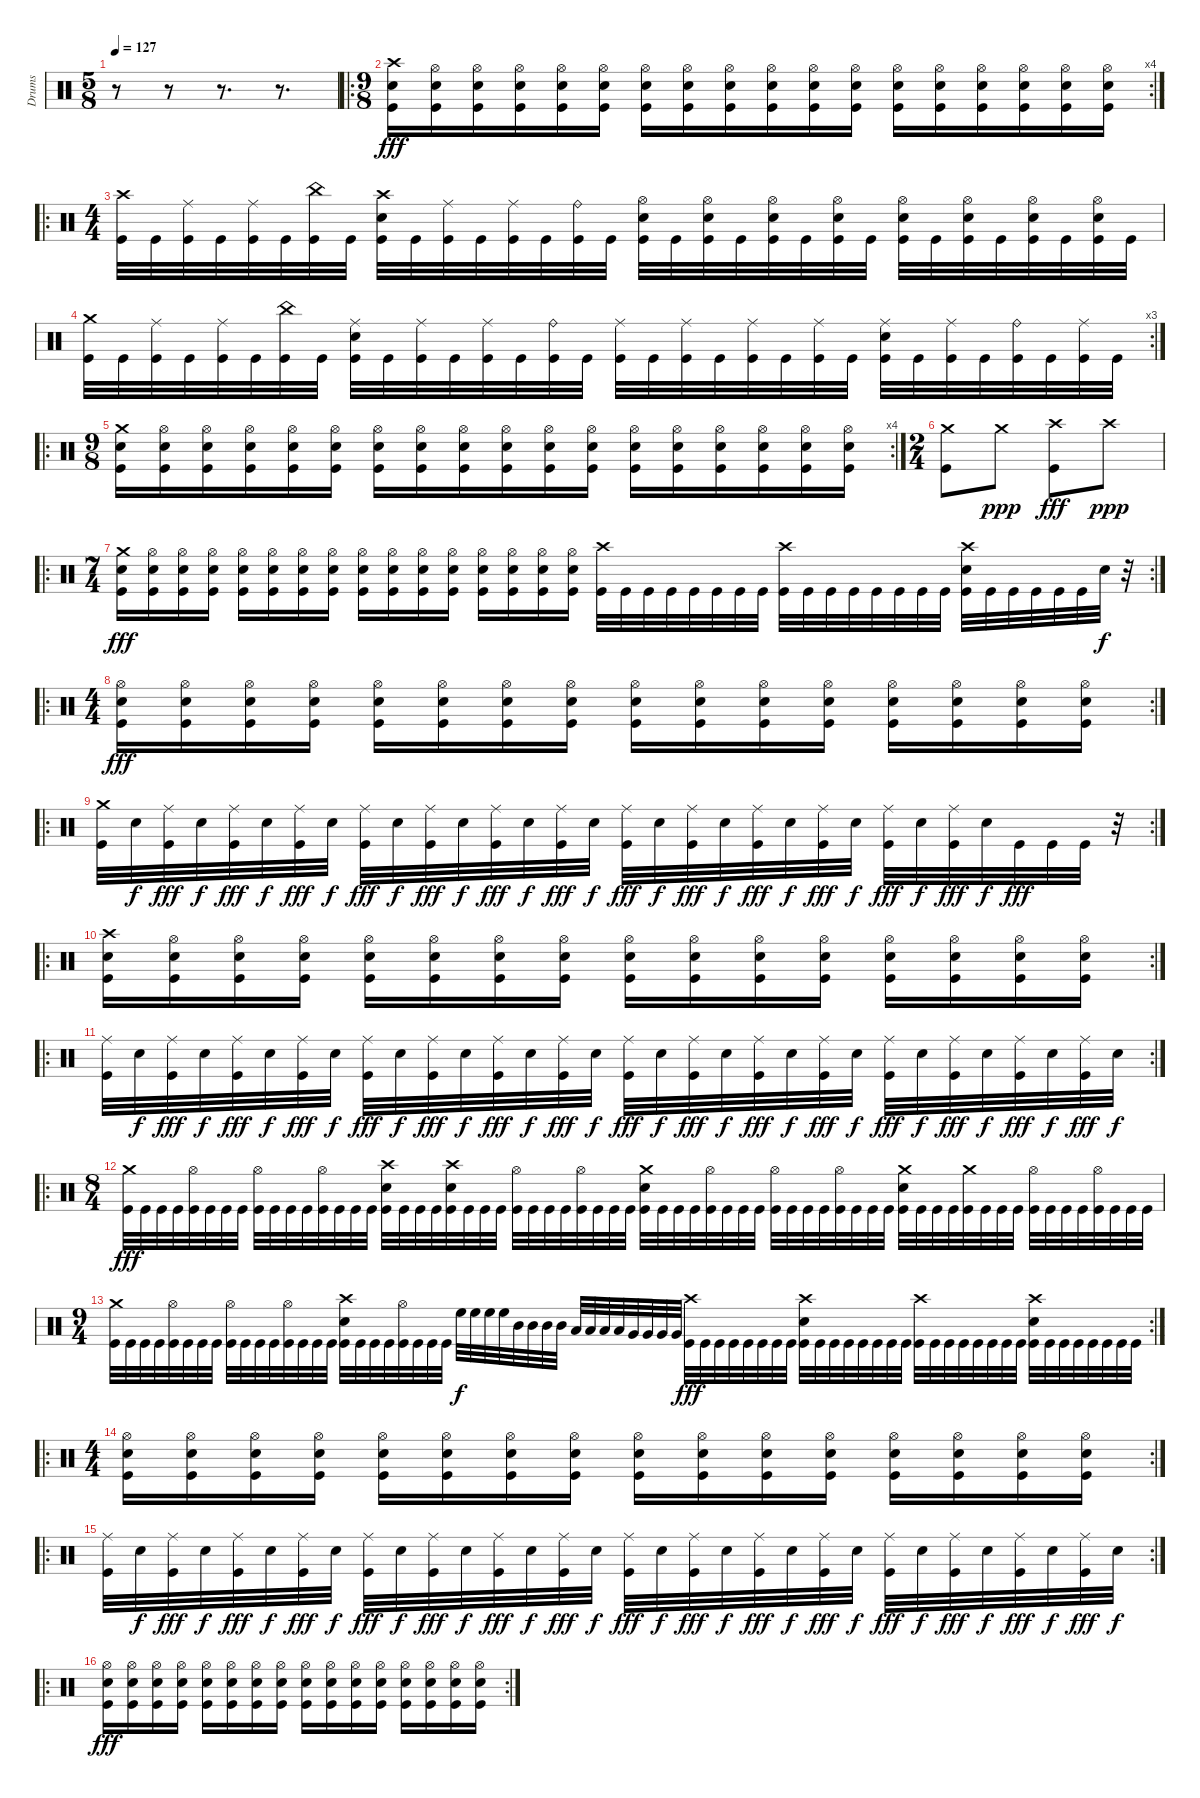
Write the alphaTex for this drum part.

\track ("Drums" "Drums") {instrument percussion}
\staff {score}
\articulation defaults
\ts (5 8)
\tempo 127
\clef neutral
\ks c
r.8{dy f} r.8 r.8{d} r.8{d} |
\ro
\rc 4
\ts (9 8)
("Crash high (hit)" "Electric Snare (hit)" "Kick (hit)").16{dy fff} ("Hi-Hat (open)" "Electric Snare (hit)" "Kick (hit)").16 ("Hi-Hat (open)" "Electric Snare (hit)" "Kick (hit)").16 ("Hi-Hat (open)" "Electric Snare (hit)" "Kick (hit)").16 ("Hi-Hat (open)" "Electric Snare (hit)" "Kick (hit)").16 ("Hi-Hat (open)" "Electric Snare (hit)" "Kick (hit)").16 ("Hi-Hat (open)" "Electric Snare (hit)" "Kick (hit)").16 ("Hi-Hat (open)" "Electric Snare (hit)" "Kick (hit)").16 ("Hi-Hat (open)" "Electric Snare (hit)" "Kick (hit)").16 ("Hi-Hat (open)" "Electric Snare (hit)" "Kick (hit)").16 ("Hi-Hat (open)" "Electric Snare (hit)" "Kick (hit)").16 ("Hi-Hat (open)" "Electric Snare (hit)" "Kick (hit)").16 ("Hi-Hat (open)" "Electric Snare (hit)" "Kick (hit)").16 ("Hi-Hat (open)" "Electric Snare (hit)" "Kick (hit)").16 ("Hi-Hat (open)" "Electric Snare (hit)" "Kick (hit)").16 ("Hi-Hat (open)" "Electric Snare (hit)" "Kick (hit)").16 ("Hi-Hat (open)" "Electric Snare (hit)" "Kick (hit)").16 ("Hi-Hat (open)" "Electric Snare (hit)" "Kick (hit)").16 |
\ro
\ts (4 4)
("Crash high (hit)" "Kick (hit)").32 "Kick (hit)".32 ("Ride (middle)" "Kick (hit)").32 "Kick (hit)".32 ("Ride (middle)" "Kick (hit)").32 "Kick (hit)".32 ("China (hit)" "Kick (hit)").32 "Kick (hit)".32 ("Crash high (hit)" "Electric Snare (hit)" "Kick (hit)").32 "Kick (hit)".32 ("Ride (middle)" "Kick (hit)").32 "Kick (hit)".32 ("Ride (middle)" "Kick (hit)").32 "Kick (hit)".32 ("Ride (bell)" "Kick (hit)").32 "Kick (hit)".32 ("Hi-Hat (open)" "Electric Snare (hit)" "Kick (hit)").32 "Kick (hit)".32 ("Hi-Hat (open)" "Electric Snare (hit)" "Kick (hit)").32 "Kick (hit)".32 ("Hi-Hat (open)" "Electric Snare (hit)" "Kick (hit)").32 "Kick (hit)".32 ("Hi-Hat (open)" "Electric Snare (hit)" "Kick (hit)").32 "Kick (hit)".32 ("Hi-Hat (open)" "Electric Snare (hit)" "Kick (hit)").32 "Kick (hit)".32 ("Hi-Hat (open)" "Electric Snare (hit)" "Kick (hit)").32 "Kick (hit)".32 ("Hi-Hat (open)" "Electric Snare (hit)" "Kick (hit)").32 "Kick (hit)".32 ("Hi-Hat (open)" "Electric Snare (hit)" "Kick (hit)").32 "Kick (hit)".32 |
\rc 3
("Crash medium (hit)" "Kick (hit)").32 "Kick (hit)".32 ("Ride (middle)" "Kick (hit)").32 "Kick (hit)".32 ("Ride (middle)" "Kick (hit)").32 "Kick (hit)".32 ("China (hit)" "Kick (hit)").32 "Kick (hit)".32 ("Ride (middle)" "Electric Snare (hit)" "Kick (hit)").32 "Kick (hit)".32 ("Ride (middle)" "Kick (hit)").32 "Kick (hit)".32 ("Ride (middle)" "Kick (hit)").32 "Kick (hit)".32 ("Ride (bell)" "Kick (hit)").32 "Kick (hit)".32 ("Ride (middle)" "Kick (hit)").32 "Kick (hit)".32 ("Ride (middle)" "Kick (hit)").32 "Kick (hit)".32 ("Ride (middle)" "Kick (hit)").32 "Kick (hit)".32 ("Ride (middle)" "Kick (hit)").32 "Kick (hit)".32 ("Ride (middle)" "Electric Snare (hit)" "Kick (hit)").32 "Kick (hit)".32 ("Ride (middle)" "Kick (hit)").32 "Kick (hit)".32 ("Ride (bell)" "Kick (hit)").32 "Kick (hit)".32 ("Ride (middle)" "Kick (hit)").32 "Kick (hit)".32 |
\ro
\rc 4
\ts (9 8)
("Crash medium (hit)" "Electric Snare (hit)" "Kick (hit)").16 ("Hi-Hat (open)" "Electric Snare (hit)" "Kick (hit)").16 ("Hi-Hat (open)" "Electric Snare (hit)" "Kick (hit)").16 ("Hi-Hat (open)" "Electric Snare (hit)" "Kick (hit)").16 ("Hi-Hat (open)" "Electric Snare (hit)" "Kick (hit)").16 ("Hi-Hat (open)" "Electric Snare (hit)" "Kick (hit)").16 ("Hi-Hat (open)" "Electric Snare (hit)" "Kick (hit)").16 ("Hi-Hat (open)" "Electric Snare (hit)" "Kick (hit)").16 ("Hi-Hat (open)" "Electric Snare (hit)" "Kick (hit)").16 ("Hi-Hat (open)" "Electric Snare (hit)" "Kick (hit)").16 ("Hi-Hat (open)" "Electric Snare (hit)" "Kick (hit)").16 ("Hi-Hat (open)" "Electric Snare (hit)" "Kick (hit)").16 ("Hi-Hat (open)" "Electric Snare (hit)" "Kick (hit)").16 ("Hi-Hat (open)" "Electric Snare (hit)" "Kick (hit)").16 ("Hi-Hat (open)" "Electric Snare (hit)" "Kick (hit)").16 ("Hi-Hat (open)" "Electric Snare (hit)" "Kick (hit)").16 ("Hi-Hat (open)" "Electric Snare (hit)" "Kick (hit)").16 ("Hi-Hat (open)" "Electric Snare (hit)" "Kick (hit)").16 |
\ts (2 4)
("Crash medium (hit)" "Kick (hit)").8 "Crash medium (hit)".8{dy ppp} ("Crash high (hit)" "Kick (hit)").8{dy fff} "Crash high (hit)".8{dy ppp} |
\ro
\rc 2
\ts (7 4)
("Crash medium (hit)" "Electric Snare (hit)" "Kick (hit)").16{dy fff} ("Hi-Hat (open)" "Electric Snare (hit)" "Kick (hit)").16 ("Hi-Hat (open)" "Electric Snare (hit)" "Kick (hit)").16 ("Hi-Hat (open)" "Electric Snare (hit)" "Kick (hit)").16 ("Hi-Hat (open)" "Electric Snare (hit)" "Kick (hit)").16 ("Hi-Hat (open)" "Electric Snare (hit)" "Kick (hit)").16 ("Hi-Hat (open)" "Electric Snare (hit)" "Kick (hit)").16 ("Hi-Hat (open)" "Electric Snare (hit)" "Kick (hit)").16 ("Hi-Hat (open)" "Electric Snare (hit)" "Kick (hit)").16 ("Hi-Hat (open)" "Electric Snare (hit)" "Kick (hit)").16 ("Hi-Hat (open)" "Electric Snare (hit)" "Kick (hit)").16 ("Hi-Hat (open)" "Electric Snare (hit)" "Kick (hit)").16 ("Hi-Hat (open)" "Electric Snare (hit)" "Kick (hit)").16 ("Hi-Hat (open)" "Electric Snare (hit)" "Kick (hit)").16 ("Hi-Hat (open)" "Electric Snare (hit)" "Kick (hit)").16 ("Hi-Hat (open)" "Electric Snare (hit)" "Kick (hit)").16 ("Crash high (hit)" "Kick (hit)").32 "Kick (hit)".32 "Kick (hit)".32 "Kick (hit)".32 "Kick (hit)".32 "Kick (hit)".32 "Kick (hit)".32 "Kick (hit)".32 ("Crash high (hit)" "Kick (hit)").32 "Kick (hit)".32 "Kick (hit)".32 "Kick (hit)".32 "Kick (hit)".32 "Kick (hit)".32 "Kick (hit)".32 "Kick (hit)".32 ("Crash high (hit)" "Electric Snare (hit)" "Kick (hit)").32 "Kick (hit)".32 "Kick (hit)".32 "Kick (hit)".32 "Kick (hit)".32 "Kick (hit)".32 "Electric Snare (hit)".32{dy f} r.32 |
\ro
\rc 2
\ts (4 4)
("Hi-Hat (open)" "Electric Snare (hit)" "Kick (hit)").16{dy fff} ("Hi-Hat (open)" "Electric Snare (hit)" "Kick (hit)").16 ("Hi-Hat (open)" "Electric Snare (hit)" "Kick (hit)").16 ("Hi-Hat (open)" "Electric Snare (hit)" "Kick (hit)").16 ("Hi-Hat (open)" "Electric Snare (hit)" "Kick (hit)").16 ("Hi-Hat (open)" "Electric Snare (hit)" "Kick (hit)").16 ("Hi-Hat (open)" "Electric Snare (hit)" "Kick (hit)").16 ("Hi-Hat (open)" "Electric Snare (hit)" "Kick (hit)").16 ("Hi-Hat (open)" "Electric Snare (hit)" "Kick (hit)").16 ("Hi-Hat (open)" "Electric Snare (hit)" "Kick (hit)").16 ("Hi-Hat (open)" "Electric Snare (hit)" "Kick (hit)").16 ("Hi-Hat (open)" "Electric Snare (hit)" "Kick (hit)").16 ("Hi-Hat (open)" "Electric Snare (hit)" "Kick (hit)").16 ("Hi-Hat (open)" "Electric Snare (hit)" "Kick (hit)").16 ("Hi-Hat (open)" "Electric Snare (hit)" "Kick (hit)").16 ("Hi-Hat (open)" "Electric Snare (hit)" "Kick (hit)").16 |
\ro
\rc 2
("Crash medium (hit)" "Kick (hit)").32 "Electric Snare (hit)".32{dy f} ("Ride (middle)" "Kick (hit)").32{dy fff} "Electric Snare (hit)".32{dy f} ("Ride (middle)" "Kick (hit)").32{dy fff} "Electric Snare (hit)".32{dy f} ("Ride (middle)" "Kick (hit)").32{dy fff} "Electric Snare (hit)".32{dy f} ("Ride (middle)" "Kick (hit)").32{dy fff} "Electric Snare (hit)".32{dy f} ("Ride (middle)" "Kick (hit)").32{dy fff} "Electric Snare (hit)".32{dy f} ("Ride (middle)" "Kick (hit)").32{dy fff} "Electric Snare (hit)".32{dy f} ("Ride (middle)" "Kick (hit)").32{dy fff} "Electric Snare (hit)".32{dy f} ("Ride (middle)" "Kick (hit)").32{dy fff} "Electric Snare (hit)".32{dy f} ("Ride (middle)" "Kick (hit)").32{dy fff} "Electric Snare (hit)".32{dy f} ("Ride (middle)" "Kick (hit)").32{dy fff} "Electric Snare (hit)".32{dy f} ("Ride (middle)" "Kick (hit)").32{dy fff} "Electric Snare (hit)".32{dy f} ("Ride (middle)" "Kick (hit)").32{dy fff} "Electric Snare (hit)".32{dy f} ("Ride (middle)" "Kick (hit)").32{dy fff} "Electric Snare (hit)".32{dy f} "Kick (hit)".32{dy fff} "Kick (hit)".32 "Kick (hit)".32 r.32 |
\ro
\rc 2
("Crash high (hit)" "Electric Snare (hit)" "Kick (hit)").16 ("Hi-Hat (open)" "Electric Snare (hit)" "Kick (hit)").16 ("Hi-Hat (open)" "Electric Snare (hit)" "Kick (hit)").16 ("Hi-Hat (open)" "Electric Snare (hit)" "Kick (hit)").16 ("Hi-Hat (open)" "Electric Snare (hit)" "Kick (hit)").16 ("Hi-Hat (open)" "Electric Snare (hit)" "Kick (hit)").16 ("Hi-Hat (open)" "Electric Snare (hit)" "Kick (hit)").16 ("Hi-Hat (open)" "Electric Snare (hit)" "Kick (hit)").16 ("Hi-Hat (open)" "Electric Snare (hit)" "Kick (hit)").16 ("Hi-Hat (open)" "Electric Snare (hit)" "Kick (hit)").16 ("Hi-Hat (open)" "Electric Snare (hit)" "Kick (hit)").16 ("Hi-Hat (open)" "Electric Snare (hit)" "Kick (hit)").16 ("Hi-Hat (open)" "Electric Snare (hit)" "Kick (hit)").16 ("Hi-Hat (open)" "Electric Snare (hit)" "Kick (hit)").16 ("Hi-Hat (open)" "Electric Snare (hit)" "Kick (hit)").16 ("Hi-Hat (open)" "Electric Snare (hit)" "Kick (hit)").16 |
\ro
\rc 2
("Ride (middle)" "Kick (hit)").32 "Electric Snare (hit)".32{dy f} ("Ride (middle)" "Kick (hit)").32{dy fff} "Electric Snare (hit)".32{dy f} ("Ride (middle)" "Kick (hit)").32{dy fff} "Electric Snare (hit)".32{dy f} ("Ride (middle)" "Kick (hit)").32{dy fff} "Electric Snare (hit)".32{dy f} ("Ride (middle)" "Kick (hit)").32{dy fff} "Electric Snare (hit)".32{dy f} ("Ride (middle)" "Kick (hit)").32{dy fff} "Electric Snare (hit)".32{dy f} ("Ride (middle)" "Kick (hit)").32{dy fff} "Electric Snare (hit)".32{dy f} ("Ride (middle)" "Kick (hit)").32{dy fff} "Electric Snare (hit)".32{dy f} ("Ride (middle)" "Kick (hit)").32{dy fff} "Electric Snare (hit)".32{dy f} ("Ride (middle)" "Kick (hit)").32{dy fff} "Electric Snare (hit)".32{dy f} ("Ride (middle)" "Kick (hit)").32{dy fff} "Electric Snare (hit)".32{dy f} ("Ride (middle)" "Kick (hit)").32{dy fff} "Electric Snare (hit)".32{dy f} ("Ride (middle)" "Kick (hit)").32{dy fff} "Electric Snare (hit)".32{dy f} ("Ride (middle)" "Kick (hit)").32{dy fff} "Electric Snare (hit)".32{dy f} ("Ride (middle)" "Kick (hit)").32{dy fff} "Electric Snare (hit)".32{dy f} ("Ride (middle)" "Kick (hit)").32{dy fff} "Electric Snare (hit)".32{dy f} |
\ro
\ts (8 4)
("Crash medium (hit)" "Kick (hit)").32{dy fff} "Kick (hit)".32 "Kick (hit)".32 "Kick (hit)".32 ("Hi-Hat (open)" "Kick (hit)").32 "Kick (hit)".32 "Kick (hit)".32 "Kick (hit)".32 ("Hi-Hat (open)" "Kick (hit)").32 "Kick (hit)".32 "Kick (hit)".32 "Kick (hit)".32 ("Hi-Hat (open)" "Kick (hit)").32 "Kick (hit)".32 "Kick (hit)".32 "Kick (hit)".32 ("Crash high (hit)" "Electric Snare (hit)" "Kick (hit)").32 "Kick (hit)".32 "Kick (hit)".32 "Kick (hit)".32 ("Crash high (hit)" "Electric Snare (hit)" "Kick (hit)").32 "Kick (hit)".32 "Kick (hit)".32 "Kick (hit)".32 ("Hi-Hat (open)" "Kick (hit)").32 "Kick (hit)".32 "Kick (hit)".32 "Kick (hit)".32 ("Hi-Hat (open)" "Kick (hit)").32 "Kick (hit)".32 "Kick (hit)".32 "Kick (hit)".32 ("Crash medium (hit)" "Electric Snare (hit)" "Kick (hit)").32 "Kick (hit)".32 "Kick (hit)".32 "Kick (hit)".32 ("Hi-Hat (open)" "Kick (hit)").32 "Kick (hit)".32 "Kick (hit)".32 "Kick (hit)".32 ("Hi-Hat (open)" "Kick (hit)").32 "Kick (hit)".32 "Kick (hit)".32 "Kick (hit)".32 ("Hi-Hat (open)" "Kick (hit)").32 "Kick (hit)".32 "Kick (hit)".32 "Kick (hit)".32 ("Crash medium (hit)" "Electric Snare (hit)" "Kick (hit)").32 "Kick (hit)".32 "Kick (hit)".32 "Kick (hit)".32 ("Crash medium (hit)" "Kick (hit)").32 "Kick (hit)".32 "Kick (hit)".32 "Kick (hit)".32 ("Hi-Hat (open)" "Kick (hit)").32 "Kick (hit)".32 "Kick (hit)".32 "Kick (hit)".32 ("Hi-Hat (open)" "Kick (hit)").32 "Kick (hit)".32 "Kick (hit)".32 "Kick (hit)".32 |
\rc 2
\ts (9 4)
("Crash medium (hit)" "Kick (hit)").32 "Kick (hit)".32 "Kick (hit)".32 "Kick (hit)".32 ("Hi-Hat (open)" "Kick (hit)").32 "Kick (hit)".32 "Kick (hit)".32 "Kick (hit)".32 ("Hi-Hat (open)" "Kick (hit)").32 "Kick (hit)".32 "Kick (hit)".32 "Kick (hit)".32 ("Hi-Hat (open)" "Kick (hit)").32 "Kick (hit)".32 "Kick (hit)".32 "Kick (hit)".32 ("Crash high (hit)" "Electric Snare (hit)" "Kick (hit)").32 "Kick (hit)".32 "Kick (hit)".32 "Kick (hit)".32 ("Hi-Hat (open)" "Kick (hit)").32 "Kick (hit)".32 "Kick (hit)".32 "Kick (hit)".32 "High Floor Tom (hit)".32{dy f} "High Floor Tom (hit)".32 "High Floor Tom (hit)".32 "High Floor Tom (hit)".32 "Mid Tom (hit)".32 "Mid Tom (hit)".32 "Mid Tom (hit)".32 "Mid Tom (hit)".32 "Low Tom (hit)".32 "Low Tom (hit)".32 "Low Tom (hit)".32 "Low Tom (hit)".32 "Very Low Tom (hit)".32 "Very Low Tom (hit)".32 "Very Low Tom (hit)".32 "Very Low Tom (hit)".32 ("Crash high (hit)" "Kick (hit)").32{dy fff} "Kick (hit)".32 "Kick (hit)".32 "Kick (hit)".32 "Kick (hit)".32 "Kick (hit)".32 "Kick (hit)".32 "Kick (hit)".32 ("Crash high (hit)" "Electric Snare (hit)" "Kick (hit)").32 "Kick (hit)".32 "Kick (hit)".32 "Kick (hit)".32 "Kick (hit)".32 "Kick (hit)".32 "Kick (hit)".32 "Kick (hit)".32 ("Crash high (hit)" "Kick (hit)").32 "Kick (hit)".32 "Kick (hit)".32 "Kick (hit)".32 "Kick (hit)".32 "Kick (hit)".32 "Kick (hit)".32 "Kick (hit)".32 ("Crash high (hit)" "Electric Snare (hit)" "Kick (hit)").32 "Kick (hit)".32 "Kick (hit)".32 "Kick (hit)".32 "Kick (hit)".32 "Kick (hit)".32 "Kick (hit)".32 "Kick (hit)".32 |
\ro
\rc 2
\ts (4 4)
("Hi-Hat (open)" "Electric Snare (hit)" "Kick (hit)").16 ("Hi-Hat (open)" "Electric Snare (hit)" "Kick (hit)").16 ("Hi-Hat (open)" "Electric Snare (hit)" "Kick (hit)").16 ("Hi-Hat (open)" "Electric Snare (hit)" "Kick (hit)").16 ("Hi-Hat (open)" "Electric Snare (hit)" "Kick (hit)").16 ("Hi-Hat (open)" "Electric Snare (hit)" "Kick (hit)").16 ("Hi-Hat (open)" "Electric Snare (hit)" "Kick (hit)").16 ("Hi-Hat (open)" "Electric Snare (hit)" "Kick (hit)").16 ("Hi-Hat (open)" "Electric Snare (hit)" "Kick (hit)").16 ("Hi-Hat (open)" "Electric Snare (hit)" "Kick (hit)").16 ("Hi-Hat (open)" "Electric Snare (hit)" "Kick (hit)").16 ("Hi-Hat (open)" "Electric Snare (hit)" "Kick (hit)").16 ("Hi-Hat (open)" "Electric Snare (hit)" "Kick (hit)").16 ("Hi-Hat (open)" "Electric Snare (hit)" "Kick (hit)").16 ("Hi-Hat (open)" "Electric Snare (hit)" "Kick (hit)").16 ("Hi-Hat (open)" "Electric Snare (hit)" "Kick (hit)").16 |
\ro
\rc 2
("Ride (middle)" "Kick (hit)").32 "Electric Snare (hit)".32{dy f} ("Ride (middle)" "Kick (hit)").32{dy fff} "Electric Snare (hit)".32{dy f} ("Ride (middle)" "Kick (hit)").32{dy fff} "Electric Snare (hit)".32{dy f} ("Ride (middle)" "Kick (hit)").32{dy fff} "Electric Snare (hit)".32{dy f} ("Ride (middle)" "Kick (hit)").32{dy fff} "Electric Snare (hit)".32{dy f} ("Ride (middle)" "Kick (hit)").32{dy fff} "Electric Snare (hit)".32{dy f} ("Ride (middle)" "Kick (hit)").32{dy fff} "Electric Snare (hit)".32{dy f} ("Ride (middle)" "Kick (hit)").32{dy fff} "Electric Snare (hit)".32{dy f} ("Ride (middle)" "Kick (hit)").32{dy fff} "Electric Snare (hit)".32{dy f} ("Ride (middle)" "Kick (hit)").32{dy fff} "Electric Snare (hit)".32{dy f} ("Ride (middle)" "Kick (hit)").32{dy fff} "Electric Snare (hit)".32{dy f} ("Ride (middle)" "Kick (hit)").32{dy fff} "Electric Snare (hit)".32{dy f} ("Ride (middle)" "Kick (hit)").32{dy fff} "Electric Snare (hit)".32{dy f} ("Ride (middle)" "Kick (hit)").32{dy fff} "Electric Snare (hit)".32{dy f} ("Ride (middle)" "Kick (hit)").32{dy fff} "Electric Snare (hit)".32{dy f} ("Ride (middle)" "Kick (hit)").32{dy fff} "Electric Snare (hit)".32{dy f} |
\ro
\rc 2
("Hi-Hat (open)" "Electric Snare (hit)" "Kick (hit)").16{dy fff} ("Hi-Hat (open)" "Electric Snare (hit)" "Kick (hit)").16 ("Hi-Hat (open)" "Electric Snare (hit)" "Kick (hit)").16 ("Hi-Hat (open)" "Electric Snare (hit)" "Kick (hit)").16 ("Hi-Hat (open)" "Electric Snare (hit)" "Kick (hit)").16 ("Hi-Hat (open)" "Electric Snare (hit)" "Kick (hit)").16 ("Hi-Hat (open)" "Electric Snare (hit)" "Kick (hit)").16 ("Hi-Hat (open)" "Electric Snare (hit)" "Kick (hit)").16 ("Hi-Hat (open)" "Electric Snare (hit)" "Kick (hit)").16 ("Hi-Hat (open)" "Electric Snare (hit)" "Kick (hit)").16 ("Hi-Hat (open)" "Electric Snare (hit)" "Kick (hit)").16 ("Hi-Hat (open)" "Electric Snare (hit)" "Kick (hit)").16 ("Hi-Hat (open)" "Electric Snare (hit)" "Kick (hit)").16 ("Hi-Hat (open)" "Electric Snare (hit)" "Kick (hit)").16 ("Hi-Hat (open)" "Electric Snare (hit)" "Kick (hit)").16 ("Hi-Hat (open)" "Electric Snare (hit)" "Kick (hit)").16
